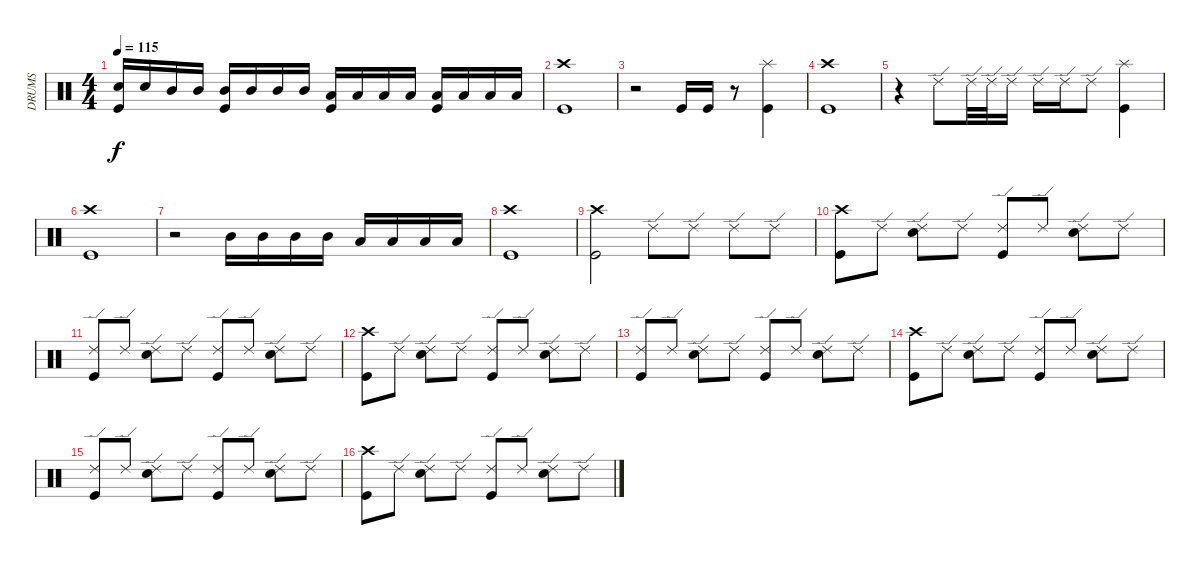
\track ("DRUMS" "DRUMS") {instrument percussion}
\staff {score}
\articulation defaults
\ts (4 4)
\tempo 115
\clef neutral
\ks c
("Snare (hit) 2" "Kick (hit)").16{dy f} "Snare (hit) 2".16 "Mid Tom (hit)".16 "Mid Tom (hit)".16 ("Mid Tom (hit)" "Kick (hit)").16 "Mid Tom (hit)".16 "Mid Tom (hit)".16 "Mid Tom (hit)".16 ("Low Tom (hit)" "Kick (hit)").16 "Low Tom (hit)".16 "Low Tom (hit)".16 "Low Tom (hit)".16 ("Low Tom (hit)" "Kick (hit)").16 "Low Tom (hit)".16 "Low Tom (hit)".16 "Low Tom (hit)".16 |
("Crash high (hit)" "Kick (hit)").1 |
r.2 "Kick (hit)".16 "Kick (hit)".16 r.8 ("Splash (hit)" "Kick (hit)").4 |
("Crash high (hit)" "Kick (hit)").1 |
r.4 "Ride (edge) 2".8 "Ride (edge) 2".32 "Ride (edge) 2".32 "Ride (edge) 2".16 "Ride (edge) 2".16 "Ride (edge) 2".16 "Ride (edge) 2".8 ("Splash (hit)" "Kick (hit)").4 |
("Crash high (hit)" "Kick (hit)").1 |
r.2 "Mid Tom (hit)".16 "Mid Tom (hit)".16 "Mid Tom (hit)".16 "Mid Tom (hit)".16 "Low Tom (hit)".16 "Low Tom (hit)".16 "Low Tom (hit)".16 "Low Tom (hit)".16 |
("Crash high (hit)" "Kick (hit)").1 |
("Crash high (hit)" "Kick (hit)").2 "Ride (edge) 2".8 "Ride (edge) 2".8 "Ride (edge) 2".8 "Ride (edge) 2".8 |
("Crash high (hit)" "Kick (hit)").8 "Ride (edge) 2".8 ("Ride (edge) 2" "Snare (hit) 2").8 "Ride (edge) 2".8 ("Ride (edge) 2" "Kick (hit)").8 "Ride (edge) 2".8 ("Ride (edge) 2" "Snare (hit) 2").8 "Ride (edge) 2".8 |
("Ride (edge) 2" "Kick (hit)").8 "Ride (edge) 2".8 ("Ride (edge) 2" "Snare (hit) 2").8 "Ride (edge) 2".8 ("Ride (edge) 2" "Kick (hit)").8 "Ride (edge) 2".8 ("Ride (edge) 2" "Snare (hit) 2").8 "Ride (edge) 2".8 |
("Crash high (hit)" "Kick (hit)").8 "Ride (edge) 2".8 ("Ride (edge) 2" "Snare (hit) 2").8 "Ride (edge) 2".8 ("Ride (edge) 2" "Kick (hit)").8 "Ride (edge) 2".8 ("Ride (edge) 2" "Snare (hit) 2").8 "Ride (edge) 2".8 |
("Ride (edge) 2" "Kick (hit)").8 "Ride (edge) 2".8 ("Ride (edge) 2" "Snare (hit) 2").8 "Ride (edge) 2".8 ("Ride (edge) 2" "Kick (hit)").8 "Ride (edge) 2".8 ("Ride (edge) 2" "Snare (hit) 2").8 "Ride (edge) 2".8 |
("Crash high (hit)" "Kick (hit)").8 "Ride (edge) 2".8 ("Ride (edge) 2" "Snare (hit) 2").8 "Ride (edge) 2".8 ("Ride (edge) 2" "Kick (hit)").8 "Ride (edge) 2".8 ("Ride (edge) 2" "Snare (hit) 2").8 "Ride (edge) 2".8 |
("Ride (edge) 2" "Kick (hit)").8 "Ride (edge) 2".8 ("Ride (edge) 2" "Snare (hit) 2").8 "Ride (edge) 2".8 ("Ride (edge) 2" "Kick (hit)").8 "Ride (edge) 2".8 ("Ride (edge) 2" "Snare (hit) 2").8 "Ride (edge) 2".8 |
("Crash high (hit)" "Kick (hit)").8 "Ride (edge) 2".8 ("Ride (edge) 2" "Snare (hit) 2").8 "Ride (edge) 2".8 ("Ride (edge) 2" "Kick (hit)").8 "Ride (edge) 2".8 ("Ride (edge) 2" "Snare (hit) 2").8 "Ride (edge) 2".8
